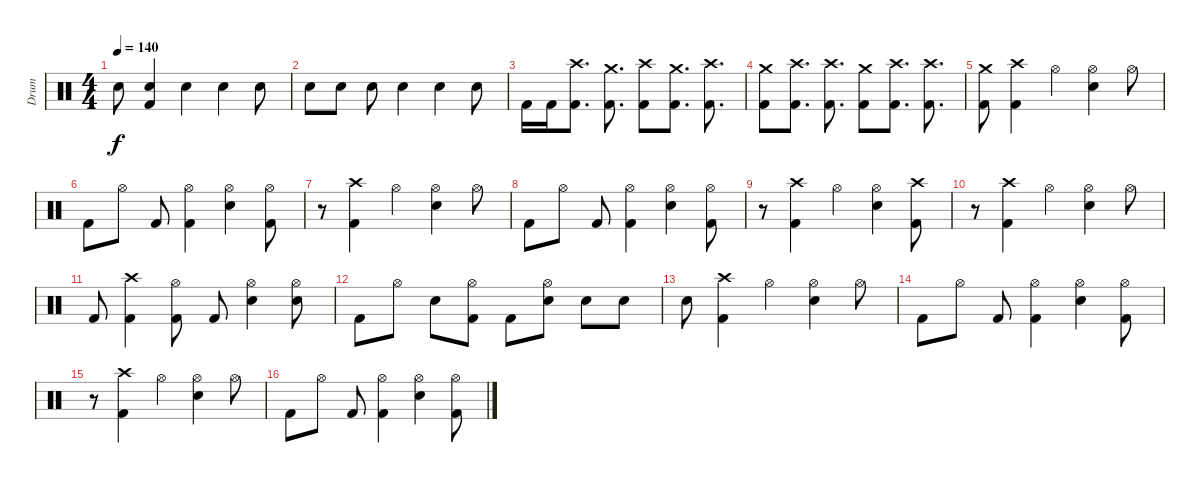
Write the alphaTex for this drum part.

\track ("Drum" "Drum") {instrument percussion}
\staff {score}
\articulation defaults
\ts (4 4)
\tempo 140
\clef neutral
\ks c "Electric Snare (hit)".8{dy f}
("Kick (hit) 2" "Electric Snare (hit)").4 "Electric Snare (hit)".4 "Electric Snare (hit)".4 "Electric Snare (hit)".8 |
"Electric Snare (hit)".8 "Electric Snare (hit)".8 "Electric Snare (hit)".8 "Electric Snare (hit)".4 "Electric Snare (hit)".4 "Electric Snare (hit)".8 |
"Kick (hit) 2".16 "Kick (hit) 2".16 ("Crash high (hit)" "Kick (hit) 2").8{d} ("Crash medium (hit)" "Kick (hit) 2").8{d} ("Crash high (hit)" "Kick (hit) 2").8 ("Crash medium (hit)" "Kick (hit) 2").8{d} ("Crash high (hit)" "Kick (hit) 2").8{d} |
("Crash medium (hit)" "Kick (hit) 2").8 ("Crash high (hit)" "Kick (hit) 2").8{d} ("Crash high (hit)" "Kick (hit) 2").8{d} ("Crash medium (hit)" "Kick (hit) 2").8 ("Crash high (hit)" "Kick (hit) 2").8{d} ("Crash high (hit)" "Kick (hit) 2").8{d} |
("Crash medium (hit)" "Kick (hit) 2").8 ("Crash high (hit)" "Kick (hit) 2").4 "Hi-Hat (open)".4 ("Hi-Hat (open)" "Electric Snare (hit)").4 "Hi-Hat (open)".8 |
"Kick (hit) 2".8 "Hi-Hat (open)".8 "Kick (hit) 2".8 ("Hi-Hat (open)" "Kick (hit) 2").4 ("Hi-Hat (open)" "Electric Snare (hit)").4 ("Hi-Hat (open)" "Kick (hit) 2").8 |
r.8 ("Crash high (hit)" "Kick (hit) 2").4 "Hi-Hat (open)".4 ("Electric Snare (hit)" "Hi-Hat (open)").4 "Hi-Hat (open)".8 |
"Kick (hit) 2".8 "Hi-Hat (open)".8 "Kick (hit) 2".8 ("Hi-Hat (open)" "Kick (hit) 2").4 ("Electric Snare (hit)" "Hi-Hat (open)").4 ("Hi-Hat (open)" "Kick (hit) 2").8 |
r.8 ("Crash high (hit)" "Kick (hit) 2").4 "Hi-Hat (open)".4 ("Electric Snare (hit)" "Hi-Hat (open)").4 ("Crash high (hit)" "Kick (hit) 2").8 |
r.8 ("Crash high (hit)" "Kick (hit) 2").4 "Hi-Hat (open)".4 ("Hi-Hat (open)" "Electric Snare (hit)").4 "Hi-Hat (open)".8 |
"Kick (hit) 2".8 ("Crash high (hit)" "Kick (hit) 2").4 ("Hi-Hat (open)" "Kick (hit) 2").8 "Kick (hit) 2".8 ("Electric Snare (hit)" "Hi-Hat (open)").4 ("Electric Snare (hit)" "Hi-Hat (open)").8 |
"Kick (hit) 2".8 "Hi-Hat (open)".8 "Electric Snare (hit)".8 ("Hi-Hat (open)" "Kick (hit) 2").8 "Kick (hit) 2".8 ("Hi-Hat (open)" "Electric Snare (hit)").8 "Electric Snare (hit)".8 "Electric Snare (hit)".8 |
"Electric Snare (hit)".8 ("Crash high (hit)" "Kick (hit) 2").4 "Hi-Hat (open)".4 ("Electric Snare (hit)" "Hi-Hat (open)").4 "Hi-Hat (open)".8 |
"Kick (hit) 2".8 "Hi-Hat (open)".8 "Kick (hit) 2".8 ("Hi-Hat (open)" "Kick (hit) 2").4 ("Electric Snare (hit)" "Hi-Hat (open)").4 ("Hi-Hat (open)" "Kick (hit) 2").8 |
r.8 ("Crash high (hit)" "Kick (hit) 2").4 "Hi-Hat (open)".4 ("Electric Snare (hit)" "Hi-Hat (open)").4 "Hi-Hat (open)".8 |
"Kick (hit) 2".8 "Hi-Hat (open)".8 "Kick (hit) 2".8 ("Hi-Hat (open)" "Kick (hit) 2").4 ("Electric Snare (hit)" "Hi-Hat (open)").4 ("Hi-Hat (open)" "Kick (hit) 2").8
